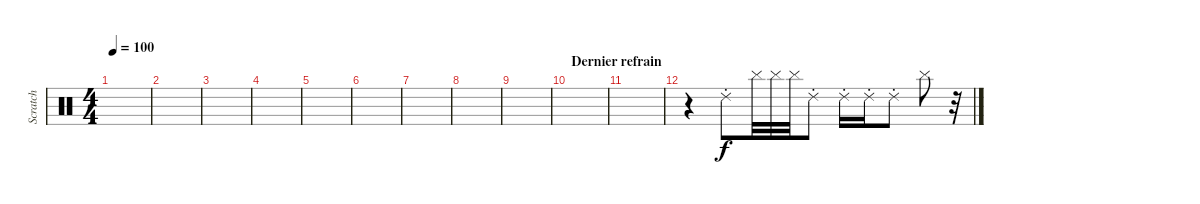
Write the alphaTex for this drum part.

\track ("Scratch" "Scratch") {instrument percussion}
\staff {score}
\articulation defaults
\ts (4 4)
\tempo 100
\clef neutral
\ks c
|
|
|
|
|
|
|
|
|
\section ("" "Dernier refrain")
|
|
r.4 "Ride (choke) 2".8 "Cymbal (hit)".32 "Cymbal (hit)".32 "Cymbal (hit)".32 "Ride (choke) 2".8 "Ride (choke) 2".16 "Ride (choke) 2".16 "Ride (choke) 2".8 "Cymbal (hit)".8 r.32
